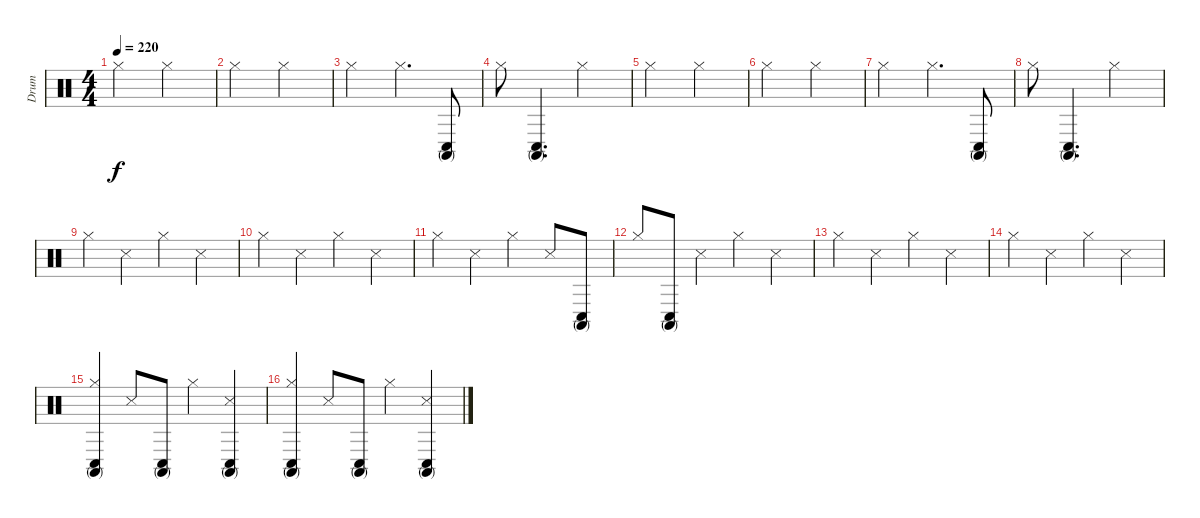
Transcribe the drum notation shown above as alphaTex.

\track ("Drum" "Drum") {instrument percussion}
\staff {score}
\articulation defaults
\ts (4 4)
\tempo 220
\clef neutral
\ks c "Hi-Hat (closed)".2{dy f} "Hi-Hat (closed)".2
|
"Hi-Hat (closed)".2 "Hi-Hat (closed)".2 |
"Hi-Hat (closed)".2 "Hi-Hat (closed)".4{d} ("Conga low (hit)" "Conga high (mute)").8 |
"Hi-Hat (closed)".8 ("Conga low (hit)" "Conga high (mute)").4{d} "Hi-Hat (closed)".2 |
"Hi-Hat (closed)".2 "Hi-Hat (closed)".2 |
"Hi-Hat (closed)".2 "Hi-Hat (closed)".2 |
"Hi-Hat (closed)".2 "Hi-Hat (closed)".4{d} ("Conga low (hit)" "Conga high (mute)").8 |
"Hi-Hat (closed)".8 ("Conga low (hit)" "Conga high (mute)").4{d} "Hi-Hat (closed)".2 |
"Hi-Hat (closed)".4 "Metronome (hit)".4 "Hi-Hat (closed)".4 "Metronome (hit)".4 |
"Hi-Hat (closed)".4 "Metronome (hit)".4 "Hi-Hat (closed)".4 "Metronome (hit)".4 |
"Hi-Hat (closed)".4 "Metronome (hit)".4 "Hi-Hat (closed)".4 "Metronome (hit)".8 ("Conga low (hit)" "Conga high (mute)").8 |
"Hi-Hat (closed)".8 ("Conga low (hit)" "Conga high (mute)").8 "Metronome (hit)".4 "Hi-Hat (closed)".4 "Metronome (hit)".4 |
"Hi-Hat (closed)".4 "Metronome (hit)".4 "Hi-Hat (closed)".4 "Metronome (hit)".4 |
"Hi-Hat (closed)".4 "Metronome (hit)".4 "Hi-Hat (closed)".4 "Metronome (hit)".4 |
("Hi-Hat (closed)" "Conga low (hit)" "Conga high (mute)").4 "Metronome (hit)".8 ("Conga low (hit)" "Conga high (mute)").8 "Hi-Hat (closed)".4 ("Metronome (hit)" "Conga low (hit)" "Conga high (mute)").4 |
("Hi-Hat (closed)" "Conga low (hit)" "Conga high (mute)").4 "Metronome (hit)".8 ("Conga low (hit)" "Conga high (mute)").8 "Hi-Hat (closed)".4 ("Metronome (hit)" "Conga low (hit)" "Conga high (mute)").4
